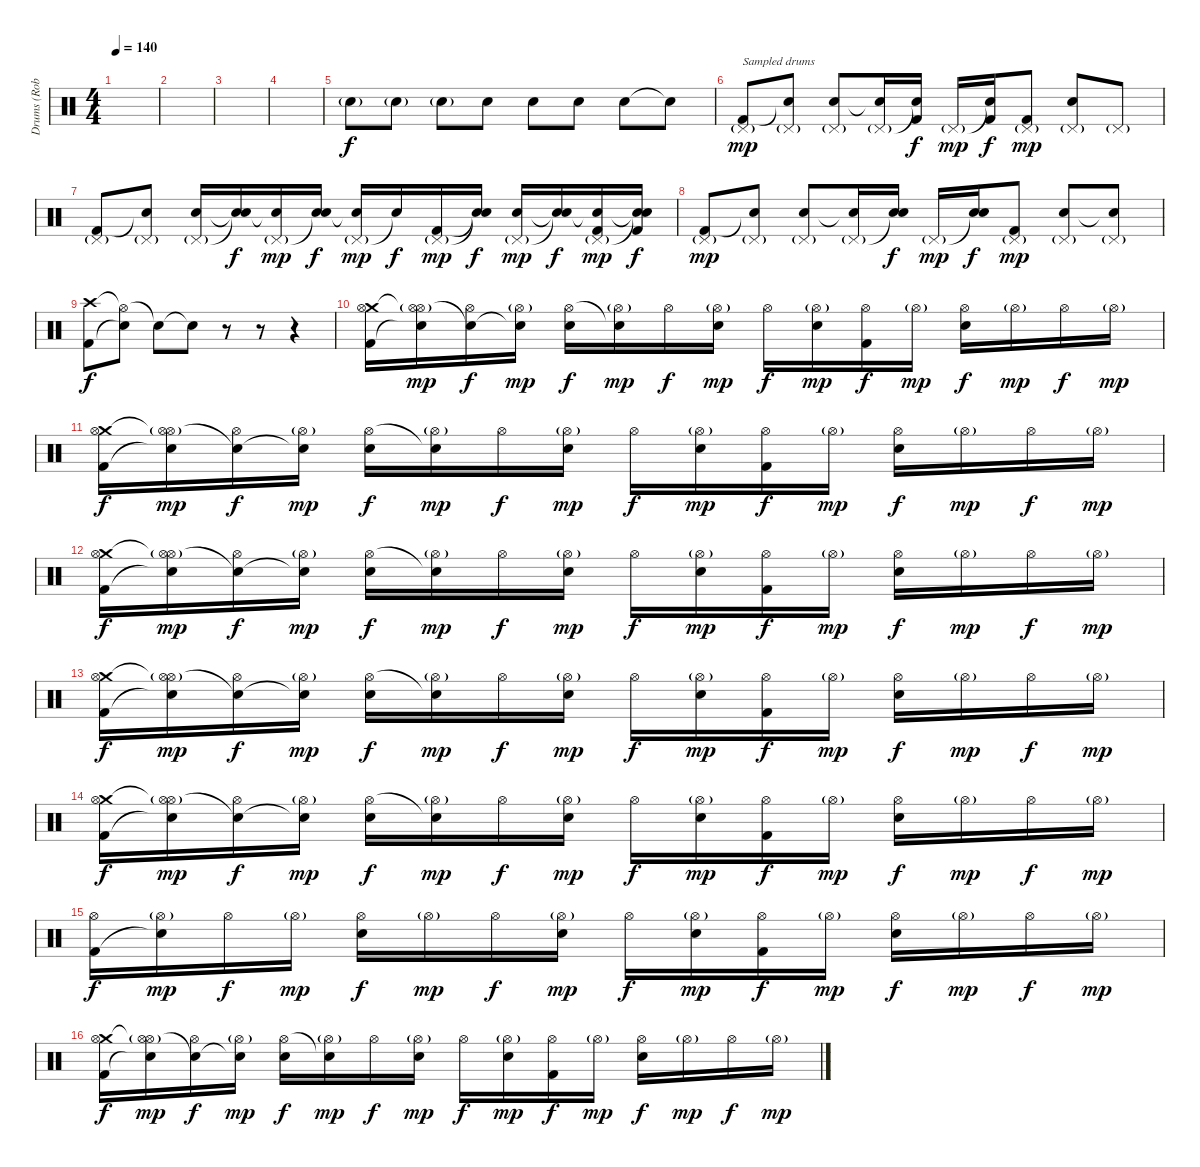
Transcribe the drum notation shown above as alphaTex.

\track ("Drums (Rob Bourdon)" "Drums (Rob") {instrument percussion}
\staff {score}
\articulation defaults
\ts (4 4)
\tempo 140
\clef neutral
\ks c
|
|
|
|
"Electric Snare (hit)"{g}.8{volume 10} "Electric Snare (hit)"{g}.8 "Electric Snare (hit)"{g}.8 "Electric Snare (hit)".8{dy f} "Electric Snare (hit)".8 "Electric Snare (hit)".8 "Electric Snare (hit)".8 "Metronome (bell)"{t}.8 |
("Pedal Hi-Hat (hit)"{g} "Kick (hit) 2").8{txt "Sampled drums" dy mp volume 10} ("Pedal Hi-Hat (hit)"{g} "Snare (hit)"{t}).8 ("Pedal Hi-Hat (hit)"{g} "Electric Snare (hit)").8 ("Pedal Hi-Hat (hit)"{g} "Snare (hit)"{t}).16 ("Snare (hit)"{t} "Kick (hit) 2").16{dy f} "Pedal Hi-Hat (hit)"{g}.16{dy mp} ("Snare (hit)"{t} "Kick (hit) 2").16{dy f} ("Pedal Hi-Hat (hit)"{g} "Kick (hit) 2").8{dy mp} ("Pedal Hi-Hat (hit)"{g} "Electric Snare (hit)").8 "Pedal Hi-Hat (hit)"{g}.8 |
("Pedal Hi-Hat (hit)"{g} "Kick (hit) 2").8{volume 10} ("Pedal Hi-Hat (hit)"{g} "Snare (hit)"{t}).8 ("Pedal Hi-Hat (hit)"{g} "Electric Snare (hit)").16 ("Snare (hit)"{t} "Snare (hit)"{t}).16{dy f} ("Pedal Hi-Hat (hit)"{g} "Snare (hit)"{t}).16{dy mp} ("Snare (hit)"{t} "Electric Snare (hit)").16{dy f} ("Pedal Hi-Hat (hit)"{g} "Snare (hit)"{t}).16{dy mp} "Snare (hit)"{t}.16{dy f} ("Pedal Hi-Hat (hit)"{g} "Kick (hit) 2").16{dy mp} ("Snare (hit)"{t} "Snare (hit)"{t}).16{dy f} ("Pedal Hi-Hat (hit)"{g} "Electric Snare (hit)").16{dy mp} ("Snare (hit)"{t} "Snare (hit)"{t}).16{dy f} ("Pedal Hi-Hat (hit)"{g} "Snare (hit)"{t} "Kick (hit) 2").16{dy mp} ("Snare (hit)"{t} "Snare (hit)"{t} "Kick (hit) 2").16{dy f} |
("Pedal Hi-Hat (hit)"{g} "Kick (hit) 2").8{dy mp volume 10} ("Pedal Hi-Hat (hit)"{g} "Snare (hit)"{t}).8 ("Pedal Hi-Hat (hit)"{g} "Electric Snare (hit)").8 ("Pedal Hi-Hat (hit)"{g} "Snare (hit)"{t}).16 ("Snare (hit)"{t} "Electric Snare (hit)").16{dy f} "Pedal Hi-Hat (hit)"{g}.16{dy mp} ("Snare (hit)"{t} "Electric Snare (hit)").16{dy f} ("Pedal Hi-Hat (hit)"{g} "Kick (hit) 2").8{dy mp} ("Pedal Hi-Hat (hit)"{g} "Electric Snare (hit)").8 ("Pedal Hi-Hat (hit)"{g} "Snare (hit)"{t}).8 |
("Crash high (hit)" "Kick (hit) 2").8{dy f volume 10} ("Hi-Hat (open)"{t} "Snare (hit)"{t}).8 "Snare (hit)"{t}.8 "Snare (hit)"{t}.8 r.8 r.8 r.4 |
("Crash medium (hit)" "Hi-Hat (open)" "Kick (hit) 2").16{volume 14} ("Hi-Hat (open)"{t} "Hi-Hat (open)"{g} "Snare (hit)"{t}).16{dy mp} ("Snare (hit)"{t} "Hi-Hat (open)").16{dy f} ("Snare (hit)"{t} "Hi-Hat (open)"{g}).16{dy mp} ("Hi-Hat (open)" "Electric Snare (hit)").16{dy f} ("Snare (hit)"{t} "Hi-Hat (open)"{g}).16{dy mp} "Hi-Hat (open)".16{dy f} ("Hi-Hat (open)"{g} "Electric Snare (hit)").16{dy mp} "Hi-Hat (open)".16{dy f} ("Hi-Hat (open)"{g} "Electric Snare (hit)").16{dy mp} ("Hi-Hat (open)" "Kick (hit) 2").16{dy f} "Hi-Hat (open)"{g}.16{dy mp} ("Hi-Hat (open)" "Electric Snare (hit)").16{dy f} "Hi-Hat (open)"{g}.16{dy mp} "Hi-Hat (open)".16{dy f} "Hi-Hat (open)"{g}.16{dy mp} |
("Crash medium (hit)" "Hi-Hat (open)" "Kick (hit) 2").16{dy f volume 14} ("Hi-Hat (open)"{t} "Hi-Hat (open)"{g} "Snare (hit)"{t}).16{dy mp} ("Snare (hit)"{t} "Hi-Hat (open)").16{dy f} ("Snare (hit)"{t} "Hi-Hat (open)"{g}).16{dy mp} ("Hi-Hat (open)" "Electric Snare (hit)").16{dy f} ("Snare (hit)"{t} "Hi-Hat (open)"{g}).16{dy mp} "Hi-Hat (open)".16{dy f} ("Hi-Hat (open)"{g} "Electric Snare (hit)").16{dy mp} "Hi-Hat (open)".16{dy f} ("Hi-Hat (open)"{g} "Electric Snare (hit)").16{dy mp} ("Hi-Hat (open)" "Kick (hit) 2").16{dy f} "Hi-Hat (open)"{g}.16{dy mp} ("Hi-Hat (open)" "Electric Snare (hit)").16{dy f} "Hi-Hat (open)"{g}.16{dy mp} "Hi-Hat (open)".16{dy f} "Hi-Hat (open)"{g}.16{dy mp} |
("Crash medium (hit)" "Hi-Hat (open)" "Kick (hit) 2").16{dy f volume 14} ("Hi-Hat (open)"{t} "Hi-Hat (open)"{g} "Snare (hit)"{t}).16{dy mp} ("Snare (hit)"{t} "Hi-Hat (open)").16{dy f} ("Snare (hit)"{t} "Hi-Hat (open)"{g}).16{dy mp} ("Hi-Hat (open)" "Electric Snare (hit)").16{dy f} ("Snare (hit)"{t} "Hi-Hat (open)"{g}).16{dy mp} "Hi-Hat (open)".16{dy f} ("Hi-Hat (open)"{g} "Electric Snare (hit)").16{dy mp} "Hi-Hat (open)".16{dy f} ("Hi-Hat (open)"{g} "Electric Snare (hit)").16{dy mp} ("Hi-Hat (open)" "Kick (hit) 2").16{dy f} "Hi-Hat (open)"{g}.16{dy mp} ("Hi-Hat (open)" "Electric Snare (hit)").16{dy f} "Hi-Hat (open)"{g}.16{dy mp} "Hi-Hat (open)".16{dy f} "Hi-Hat (open)"{g}.16{dy mp} |
("Crash medium (hit)" "Hi-Hat (open)" "Kick (hit) 2").16{dy f volume 14} ("Hi-Hat (open)"{t} "Hi-Hat (open)"{g} "Snare (hit)"{t}).16{dy mp} ("Snare (hit)"{t} "Hi-Hat (open)").16{dy f} ("Snare (hit)"{t} "Hi-Hat (open)"{g}).16{dy mp} ("Hi-Hat (open)" "Electric Snare (hit)").16{dy f} ("Snare (hit)"{t} "Hi-Hat (open)"{g}).16{dy mp} "Hi-Hat (open)".16{dy f} ("Hi-Hat (open)"{g} "Electric Snare (hit)").16{dy mp} "Hi-Hat (open)".16{dy f} ("Hi-Hat (open)"{g} "Electric Snare (hit)").16{dy mp} ("Hi-Hat (open)" "Kick (hit) 2").16{dy f} "Hi-Hat (open)"{g}.16{dy mp} ("Hi-Hat (open)" "Electric Snare (hit)").16{dy f} "Hi-Hat (open)"{g}.16{dy mp} "Hi-Hat (open)".16{dy f} "Hi-Hat (open)"{g}.16{dy mp} |
("Crash medium (hit)" "Hi-Hat (open)" "Kick (hit) 2").16{dy f volume 14} ("Hi-Hat (open)"{t} "Hi-Hat (open)"{g} "Snare (hit)"{t}).16{dy mp} ("Snare (hit)"{t} "Hi-Hat (open)").16{dy f} ("Snare (hit)"{t} "Hi-Hat (open)"{g}).16{dy mp} ("Hi-Hat (open)" "Electric Snare (hit)").16{dy f} ("Snare (hit)"{t} "Hi-Hat (open)"{g}).16{dy mp} "Hi-Hat (open)".16{dy f} ("Hi-Hat (open)"{g} "Electric Snare (hit)").16{dy mp} "Hi-Hat (open)".16{dy f} ("Hi-Hat (open)"{g} "Electric Snare (hit)").16{dy mp} ("Hi-Hat (open)" "Kick (hit) 2").16{dy f} "Hi-Hat (open)"{g}.16{dy mp} ("Hi-Hat (open)" "Electric Snare (hit)").16{dy f} "Hi-Hat (open)"{g}.16{dy mp} "Hi-Hat (open)".16{dy f} "Hi-Hat (open)"{g}.16{dy mp} |
("Hi-Hat (open)" "Kick (hit) 2").16{dy f volume 14} ("Hi-Hat (open)"{g} "Snare (hit)"{t}).16{dy mp} "Hi-Hat (open)".16{dy f} "Hi-Hat (open)"{g}.16{dy mp} ("Hi-Hat (open)" "Electric Snare (hit)").16{dy f} "Hi-Hat (open)"{g}.16{dy mp} "Hi-Hat (open)".16{dy f} ("Hi-Hat (open)"{g} "Electric Snare (hit)").16{dy mp} "Hi-Hat (open)".16{dy f} ("Hi-Hat (open)"{g} "Electric Snare (hit)").16{dy mp} ("Hi-Hat (open)" "Kick (hit) 2").16{dy f} "Hi-Hat (open)"{g}.16{dy mp} ("Hi-Hat (open)" "Electric Snare (hit)").16{dy f} "Hi-Hat (open)"{g}.16{dy mp} "Hi-Hat (open)".16{dy f} "Hi-Hat (open)"{g}.16{dy mp} |
("Crash medium (hit)" "Hi-Hat (open)" "Kick (hit) 2").16{dy f volume 14} ("Hi-Hat (open)"{t} "Hi-Hat (open)"{g} "Snare (hit)"{t}).16{dy mp} ("Snare (hit)"{t} "Hi-Hat (open)").16{dy f} ("Snare (hit)"{t} "Hi-Hat (open)"{g}).16{dy mp} ("Hi-Hat (open)" "Electric Snare (hit)").16{dy f} ("Snare (hit)"{t} "Hi-Hat (open)"{g}).16{dy mp} "Hi-Hat (open)".16{dy f} ("Hi-Hat (open)"{g} "Electric Snare (hit)").16{dy mp} "Hi-Hat (open)".16{dy f} ("Hi-Hat (open)"{g} "Electric Snare (hit)").16{dy mp} ("Hi-Hat (open)" "Kick (hit) 2").16{dy f} "Hi-Hat (open)"{g}.16{dy mp} ("Hi-Hat (open)" "Electric Snare (hit)").16{dy f} "Hi-Hat (open)"{g}.16{dy mp} "Hi-Hat (open)".16{dy f} "Hi-Hat (open)"{g}.16{dy mp}
